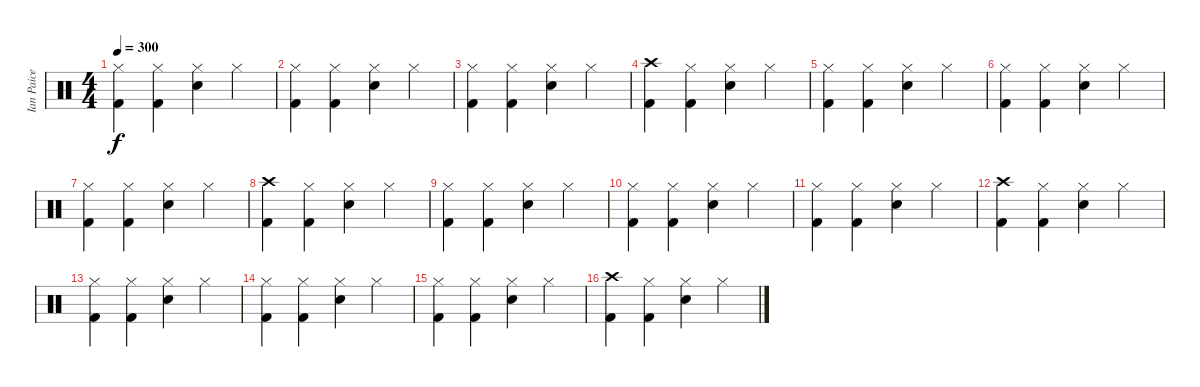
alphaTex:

\track ("Ian Paice" "Ian Paice") {instrument percussion}
\staff {score}
\articulation defaults
\ts (4 4)
\tempo 300
\clef neutral
\ks c
("Hi-Hat (closed)" "Kick (hit) 2").4{dy f} ("Hi-Hat (closed)" "Kick (hit) 2").4 ("Hi-Hat (closed)" "Electric Snare (hit)").4 "Hi-Hat (closed)".4 |
("Hi-Hat (closed)" "Kick (hit) 2").4 ("Hi-Hat (closed)" "Kick (hit) 2").4 ("Hi-Hat (closed)" "Electric Snare (hit)").4 "Hi-Hat (closed)".4 |
("Hi-Hat (closed)" "Kick (hit) 2").4 ("Hi-Hat (closed)" "Kick (hit) 2").4 ("Hi-Hat (closed)" "Electric Snare (hit)").4 "Hi-Hat (closed)".4 |
("Crash high (hit)" "Kick (hit) 2").4 ("Hi-Hat (closed)" "Kick (hit) 2").4 ("Hi-Hat (closed)" "Electric Snare (hit)").4 "Hi-Hat (closed)".4 |
("Hi-Hat (closed)" "Kick (hit) 2").4 ("Hi-Hat (closed)" "Kick (hit) 2").4 ("Hi-Hat (closed)" "Electric Snare (hit)").4 "Hi-Hat (closed)".4 |
("Hi-Hat (closed)" "Kick (hit) 2").4 ("Hi-Hat (closed)" "Kick (hit) 2").4 ("Hi-Hat (closed)" "Electric Snare (hit)").4 "Hi-Hat (closed)".4 |
("Hi-Hat (closed)" "Kick (hit) 2").4 ("Hi-Hat (closed)" "Kick (hit) 2").4 ("Hi-Hat (closed)" "Electric Snare (hit)").4 "Hi-Hat (closed)".4 |
("Crash high (hit)" "Kick (hit) 2").4 ("Hi-Hat (closed)" "Kick (hit) 2").4 ("Hi-Hat (closed)" "Electric Snare (hit)").4 "Hi-Hat (closed)".4 |
("Hi-Hat (closed)" "Kick (hit) 2").4 ("Hi-Hat (closed)" "Kick (hit) 2").4 ("Hi-Hat (closed)" "Electric Snare (hit)").4 "Hi-Hat (closed)".4 |
("Hi-Hat (closed)" "Kick (hit) 2").4 ("Hi-Hat (closed)" "Kick (hit) 2").4 ("Hi-Hat (closed)" "Electric Snare (hit)").4 "Hi-Hat (closed)".4 |
("Hi-Hat (closed)" "Kick (hit) 2").4 ("Hi-Hat (closed)" "Kick (hit) 2").4 ("Hi-Hat (closed)" "Electric Snare (hit)").4 "Hi-Hat (closed)".4 |
("Crash high (hit)" "Kick (hit) 2").4 ("Hi-Hat (closed)" "Kick (hit) 2").4 ("Hi-Hat (closed)" "Electric Snare (hit)").4 "Hi-Hat (closed)".4 |
("Hi-Hat (closed)" "Kick (hit) 2").4 ("Hi-Hat (closed)" "Kick (hit) 2").4 ("Hi-Hat (closed)" "Electric Snare (hit)").4 "Hi-Hat (closed)".4 |
("Hi-Hat (closed)" "Kick (hit) 2").4 ("Hi-Hat (closed)" "Kick (hit) 2").4 ("Hi-Hat (closed)" "Electric Snare (hit)").4 "Hi-Hat (closed)".4 |
("Hi-Hat (closed)" "Kick (hit) 2").4 ("Hi-Hat (closed)" "Kick (hit) 2").4 ("Hi-Hat (closed)" "Electric Snare (hit)").4 "Hi-Hat (closed)".4 |
("Crash high (hit)" "Kick (hit) 2").4 ("Hi-Hat (closed)" "Kick (hit) 2").4 ("Hi-Hat (closed)" "Electric Snare (hit)").4 "Hi-Hat (closed)".4
